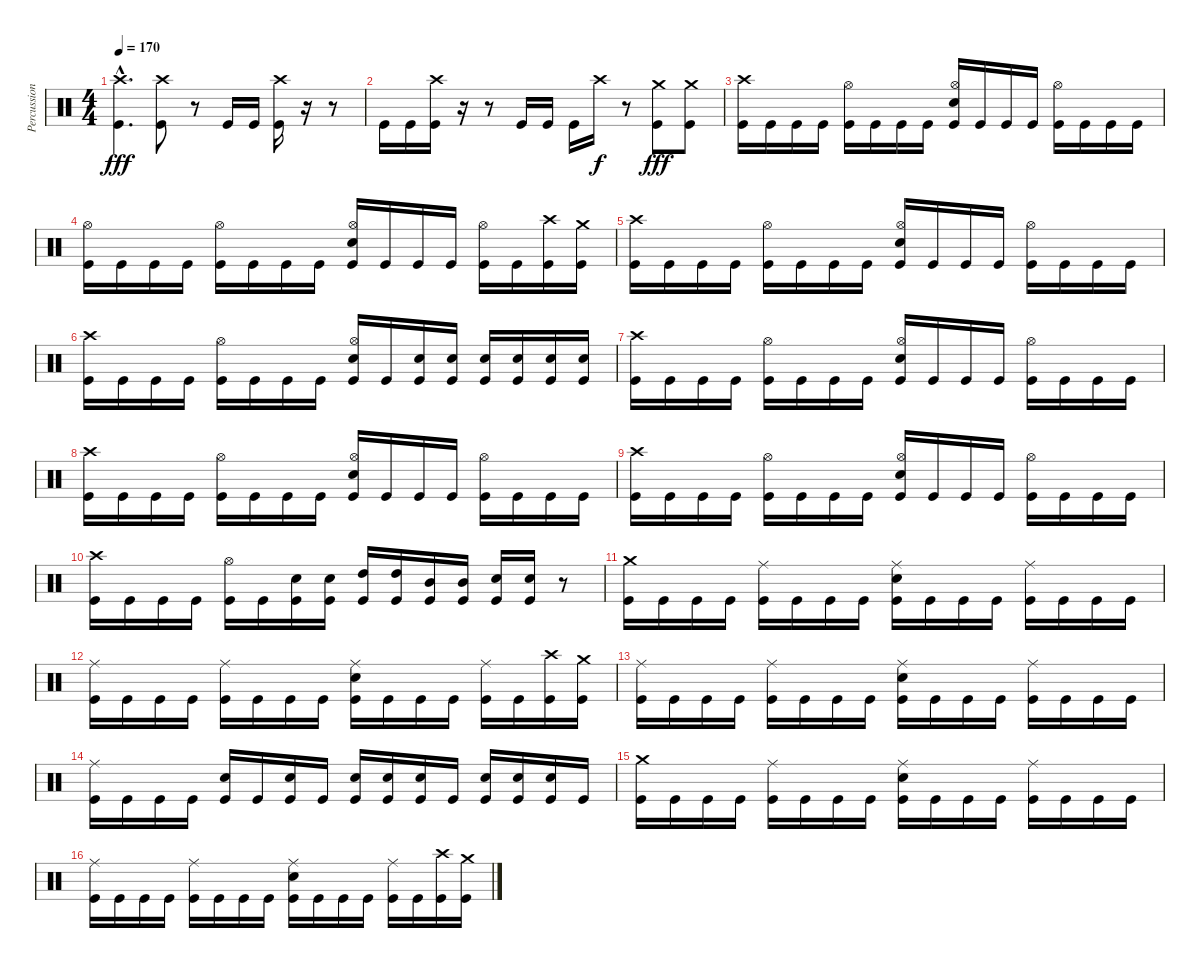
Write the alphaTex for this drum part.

\track ("Percussion" "Percussion") {instrument percussion}
\staff {score}
\articulation defaults
\ts (4 4)
\tempo 170
\clef neutral
\ks c
("Crash high (hit)"{hac} "Kick (hit)"{hac}).4{d dy fff} ("Crash high (hit)" "Kick (hit)").8 r.8{volume 0} "Kick (hit)".16{volume 16} "Kick (hit)".16 ("Crash high (hit)" "Kick (hit)").16 r.16 r.8 |
"Kick (hit)".16 "Kick (hit)".16 ("Crash high (hit)" "Kick (hit)").16 r.16 r.8 "Kick (hit)".16 "Kick (hit)".16 "Kick (hit)".16 "Crash high (hit)".16{dy f} r.8 ("Crash medium (hit)" "Kick (hit)").8{dy fff} ("Crash medium (hit)" "Kick (hit)").8 |
("Crash high (hit)" "Kick (hit)").16 "Kick (hit)".16 "Kick (hit)".16 "Kick (hit)".16 ("Hi-Hat (open)" "Kick (hit)").16 "Kick (hit)".16 "Kick (hit)".16 "Kick (hit)".16 ("Hi-Hat (open)" "Electric Snare (hit)" "Kick (hit)").16 "Kick (hit)".16 "Kick (hit)".16 "Kick (hit)".16 ("Hi-Hat (open)" "Kick (hit)").16 "Kick (hit)".16 "Kick (hit)".16 "Kick (hit)".16 |
("Hi-Hat (open)" "Kick (hit)").16 "Kick (hit)".16 "Kick (hit)".16 "Kick (hit)".16 ("Hi-Hat (open)" "Kick (hit)").16 "Kick (hit)".16 "Kick (hit)".16 "Kick (hit)".16 ("Hi-Hat (open)" "Electric Snare (hit)" "Kick (hit)").16 "Kick (hit)".16 "Kick (hit)".16 "Kick (hit)".16 ("Hi-Hat (open)" "Kick (hit)").16 "Kick (hit)".16 ("Crash high (hit)" "Kick (hit)").16 ("Crash medium (hit)" "Kick (hit)").16 |
("Crash high (hit)" "Kick (hit)").16 "Kick (hit)".16 "Kick (hit)".16 "Kick (hit)".16 ("Hi-Hat (open)" "Kick (hit)").16 "Kick (hit)".16 "Kick (hit)".16 "Kick (hit)".16 ("Hi-Hat (open)" "Electric Snare (hit)" "Kick (hit)").16 "Kick (hit)".16 "Kick (hit)".16 "Kick (hit)".16 ("Hi-Hat (open)" "Kick (hit)").16 "Kick (hit)".16 "Kick (hit)".16 "Kick (hit)".16 |
("Crash high (hit)" "Kick (hit)").16 "Kick (hit)".16 "Kick (hit)".16 "Kick (hit)".16 ("Hi-Hat (open)" "Kick (hit)").16 "Kick (hit)".16 "Kick (hit)".16 "Kick (hit)".16 ("Hi-Hat (open)" "Electric Snare (hit)" "Kick (hit)").16 "Kick (hit)".16 ("Electric Snare (hit)" "Kick (hit)").16 ("Electric Snare (hit)" "Kick (hit)").16 ("Electric Snare (hit)" "Kick (hit)").16 ("Electric Snare (hit)" "Kick (hit)").16 ("Electric Snare (hit)" "Kick (hit)").16 ("Electric Snare (hit)" "Kick (hit)").16 |
("Crash high (hit)" "Kick (hit)").16 "Kick (hit)".16 "Kick (hit)".16 "Kick (hit)".16 ("Hi-Hat (open)" "Kick (hit)").16 "Kick (hit)".16 "Kick (hit)".16 "Kick (hit)".16 ("Hi-Hat (open)" "Electric Snare (hit)" "Kick (hit)").16 "Kick (hit)".16 "Kick (hit)".16 "Kick (hit)".16 ("Hi-Hat (open)" "Kick (hit)").16 "Kick (hit)".16 "Kick (hit)".16 "Kick (hit)".16 |
("Crash high (hit)" "Kick (hit)").16 "Kick (hit)".16 "Kick (hit)".16 "Kick (hit)".16 ("Hi-Hat (open)" "Kick (hit)").16 "Kick (hit)".16 "Kick (hit)".16 "Kick (hit)".16 ("Hi-Hat (open)" "Electric Snare (hit)" "Kick (hit)").16 "Kick (hit)".16 "Kick (hit)".16 "Kick (hit)".16 ("Hi-Hat (open)" "Kick (hit)").16 "Kick (hit)".16 "Kick (hit)".16 "Kick (hit)".16 |
("Crash high (hit)" "Kick (hit)").16 "Kick (hit)".16 "Kick (hit)".16 "Kick (hit)".16 ("Hi-Hat (open)" "Kick (hit)").16 "Kick (hit)".16 "Kick (hit)".16 "Kick (hit)".16 ("Hi-Hat (open)" "Electric Snare (hit)" "Kick (hit)").16 "Kick (hit)".16 "Kick (hit)".16 "Kick (hit)".16 ("Hi-Hat (open)" "Kick (hit)").16 "Kick (hit)".16 "Kick (hit)".16 "Kick (hit)".16 |
("Crash high (hit)" "Kick (hit)").16 "Kick (hit)".16 "Kick (hit)".16 "Kick (hit)".16 ("Hi-Hat (open)" "Kick (hit)").16 "Kick (hit)".16 ("Electric Snare (hit)" "Kick (hit)").16 ("Electric Snare (hit)" "Kick (hit)").16 ("High Tom (hit)" "Kick (hit)").16 ("High Tom (hit)" "Kick (hit)").16 ("Mid Tom (hit)" "Kick (hit)").16 ("Mid Tom (hit)" "Kick (hit)").16 ("Electric Snare (hit)" "Kick (hit)").16 ("Electric Snare (hit)" "Kick (hit)").16 r.8{volume 0} |
("Crash medium (hit)" "Kick (hit)").16{volume 16} "Kick (hit)".16 "Kick (hit)".16 "Kick (hit)".16 ("Ride (middle)" "Kick (hit)").16 "Kick (hit)".16 "Kick (hit)".16 "Kick (hit)".16 ("Ride (middle)" "Electric Snare (hit)" "Kick (hit)").16 "Kick (hit)".16 "Kick (hit)".16 "Kick (hit)".16 ("Ride (middle)" "Kick (hit)").16 "Kick (hit)".16 "Kick (hit)".16 "Kick (hit)".16 |
("Ride (middle)" "Kick (hit)").16 "Kick (hit)".16 "Kick (hit)".16 "Kick (hit)".16 ("Ride (middle)" "Kick (hit)").16 "Kick (hit)".16 "Kick (hit)".16 "Kick (hit)".16 ("Ride (middle)" "Electric Snare (hit)" "Kick (hit)").16 "Kick (hit)".16 "Kick (hit)".16 "Kick (hit)".16 ("Ride (middle)" "Kick (hit)").16 "Kick (hit)".16 ("Crash high (hit)" "Kick (hit)").16 ("Crash medium (hit)" "Kick (hit)").16 |
("Ride (middle)" "Kick (hit)").16 "Kick (hit)".16 "Kick (hit)".16 "Kick (hit)".16 ("Ride (middle)" "Kick (hit)").16 "Kick (hit)".16 "Kick (hit)".16 "Kick (hit)".16 ("Ride (middle)" "Electric Snare (hit)" "Kick (hit)").16 "Kick (hit)".16 "Kick (hit)".16 "Kick (hit)".16 ("Ride (middle)" "Kick (hit)").16 "Kick (hit)".16 "Kick (hit)".16 "Kick (hit)".16 |
("Ride (middle)" "Kick (hit)").16 "Kick (hit)".16 "Kick (hit)".16 "Kick (hit)".16 ("Electric Snare (hit)" "Kick (hit)").16 "Kick (hit)".16 ("Electric Snare (hit)" "Kick (hit)").16 "Kick (hit)".16 ("Electric Snare (hit)" "Kick (hit)").16 ("Electric Snare (hit)" "Kick (hit)").16 ("Electric Snare (hit)" "Kick (hit)").16 "Kick (hit)".16 ("Electric Snare (hit)" "Kick (hit)").16 ("Electric Snare (hit)" "Kick (hit)").16 ("Electric Snare (hit)" "Kick (hit)").16 "Kick (hit)".16 |
("Crash medium (hit)" "Kick (hit)").16 "Kick (hit)".16 "Kick (hit)".16 "Kick (hit)".16 ("Ride (middle)" "Kick (hit)").16 "Kick (hit)".16 "Kick (hit)".16 "Kick (hit)".16 ("Ride (middle)" "Electric Snare (hit)" "Kick (hit)").16 "Kick (hit)".16 "Kick (hit)".16 "Kick (hit)".16 ("Ride (middle)" "Kick (hit)").16 "Kick (hit)".16 "Kick (hit)".16 "Kick (hit)".16 |
("Ride (middle)" "Kick (hit)").16 "Kick (hit)".16 "Kick (hit)".16 "Kick (hit)".16 ("Ride (middle)" "Kick (hit)").16 "Kick (hit)".16 "Kick (hit)".16 "Kick (hit)".16 ("Ride (middle)" "Electric Snare (hit)" "Kick (hit)").16 "Kick (hit)".16 "Kick (hit)".16 "Kick (hit)".16 ("Ride (middle)" "Kick (hit)").16 "Kick (hit)".16 ("Crash high (hit)" "Kick (hit)").16 ("Crash medium (hit)" "Kick (hit)").16
